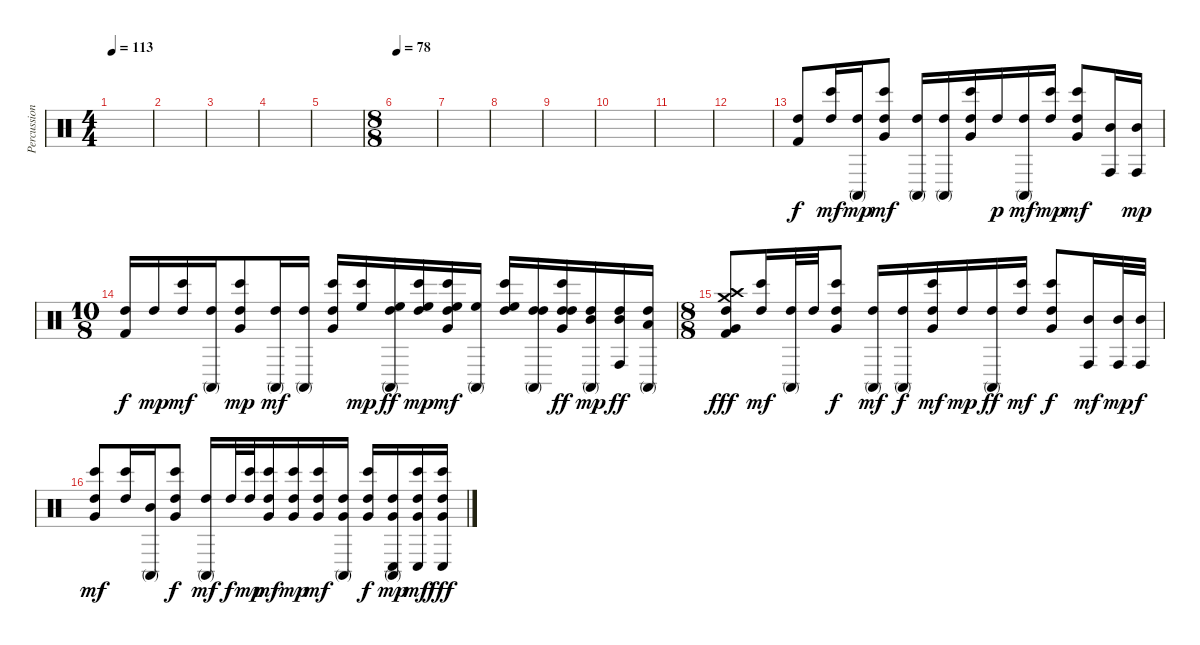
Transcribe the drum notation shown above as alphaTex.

\track ("Percussion" "Percussion") {instrument percussion}
\staff {score}
\articulation defaults
\ts (4 4)
\tempo 113
\clef neutral
\ks c
|
|
|
|
|
\ts (8 8)
\tempo 78
|
|
|
|
|
|
|
("High Tom (hit)" "Kick (hit) 2").8 ("Bongo High (hit)" "High Tom (hit)").16{dy mf} ("Conga high (mute)" "High Tom (hit)").16{dy mp} ("Very Low Tom (hit)" "Bongo High (hit)" "High Tom (hit)").8{dy mf} ("Conga high (mute)" "High Tom (hit)").16 ("Conga high (mute)" "High Tom (hit)").16 ("Very Low Tom (hit)" "Bongo High (hit)" "High Tom (hit)").16 "High Tom (hit)".16{dy p} ("Conga high (mute)" "High Tom (hit)").16{dy mf} ("Bongo High (hit)" "High Tom (hit)").16{dy mp} ("Very Low Tom (hit)" "Bongo High (hit)" "High Tom (hit)").8{dy mf} ("Conga high (hit)" "Mid Tom (hit)").16 ("Conga high (hit)" "Mid Tom (hit)").16{dy mp} |
\ts (10 8)
("High Tom (hit)" "Kick (hit) 2").16{dy f} "High Tom (hit)".16{dy mp} ("Bongo High (hit)" "High Tom (hit)").16{dy mf} ("Conga high (mute)" "High Tom (hit)").16 ("Very Low Tom (hit)" "Bongo High (hit)" "High Tom (hit)").8{dy mp} ("Conga high (mute)" "High Tom (hit)").16{dy mf} ("Conga high (mute)" "High Tom (hit)").16{balance 0} ("Very Low Tom (hit)" "Bongo High (hit)" "High Tom (hit)").16{balance 16} ("High Floor Tom (hit)" "Bongo High (hit)").16{dy mp} ("High Floor Tom (hit)" "Conga high (mute)" "High Tom (hit)").16{dy ff} ("High Floor Tom (hit)" "Bongo High (hit)" "High Tom (hit)").16{dy mp} ("High Floor Tom (hit)" "Bongo High (hit)" "High Tom (hit)" "Very Low Tom (hit)").16{dy mf} ("High Floor Tom (hit)" "Conga high (mute)").16 ("High Floor Tom (hit)" "Bongo High (hit)" "High Tom (hit)").16 ("High Tom (hit)" "Conga high (mute)" "High Tom (hit)").16 ("High Tom (hit)" "Bongo High (hit)" "High Tom (hit)" "Very Low Tom (hit)").16{dy ff} ("Mid Tom (hit)" "Conga high (mute)" "High Tom (hit)").16{dy mp} ("Mid Tom (hit)" "Conga high (hit)" "High Tom (hit)").16{dy ff} ("Low Tom (hit)" "Conga high (mute)" "High Tom (hit)").16 |
\ts (8 8)
("Crash high (hit)" "Very Low Tom (hit)" "Crash medium (hit)" "High Tom (hit)" "Kick (hit) 2").8{dy fff volume 9 balance 9} ("Bongo High (hit)" "High Tom (hit)").16{dy mf} ("Conga high (mute)" "High Tom (hit)").32 "High Tom (hit)".32 ("Very Low Tom (hit)" "Bongo High (hit)" "High Tom (hit)").8{dy f} ("Conga high (mute)" "High Tom (hit)").16{dy mf} ("Conga high (mute)" "High Tom (hit)").16{dy f} ("Very Low Tom (hit)" "Bongo High (hit)" "High Tom (hit)").16{dy mf} "High Tom (hit)".16{dy mp} ("Conga high (mute)" "High Tom (hit)").16{dy ff} ("Bongo High (hit)" "High Tom (hit)").16{dy mf} ("Very Low Tom (hit)" "Bongo High (hit)" "High Tom (hit)").8{dy f} ("Conga high (hit)" "Mid Tom (hit)").16{dy mf} ("Conga high (hit)" "Mid Tom (hit)").32{dy mp} ("Conga high (hit)" "Mid Tom (hit)").32{dy f} |
("Very Low Tom (hit)" "Bongo High (hit)" "High Tom (hit)").8{dy mf} ("Bongo High (hit)" "High Tom (hit)").16 ("Conga high (mute)" "Mid Tom (hit)").16 ("Very Low Tom (hit)" "Bongo High (hit)" "High Tom (hit)").8{dy f} ("Conga high (mute)" "High Tom (hit)").16{dy mf} "High Tom (hit)".32{dy f} ("Bongo High (hit)" "High Tom (hit)").32{dy mp} ("Very Low Tom (hit)" "Bongo High (hit)" "High Tom (hit)").16{dy mf} ("Very Low Tom (hit)" "Bongo High (hit)" "High Tom (hit)").16{dy mp} ("Very Low Tom (hit)" "Bongo High (hit)" "High Tom (hit)").16{dy mf} ("Very Low Tom (hit)" "Conga high (mute)" "High Tom (hit)").16 ("Very Low Tom (hit)" "Bongo High (hit)" "High Tom (hit)").16{dy f} ("Very Low Tom (hit)" "Conga high (mute)" "High Tom (hit)" "Conga low (hit)").16{dy mp} ("Very Low Tom (hit)" "Bongo High (hit)" "High Tom (hit)" "Conga low (hit)").16{dy mf} ("Very Low Tom (hit)" "Bongo High (hit)" "High Tom (hit)" "Conga low (hit)").16{dy fff}
